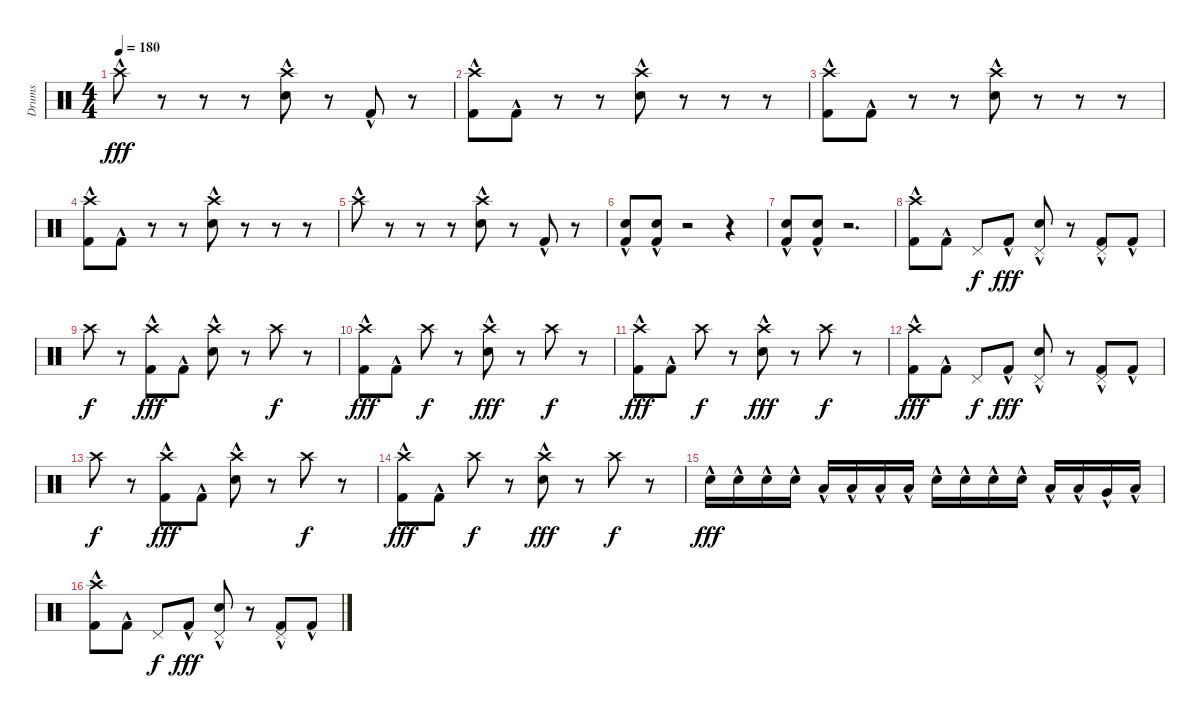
\track ("Drums" "Drums") {instrument percussion}
\staff {score}
\articulation defaults
\ts (4 4)
\tempo 180
\clef neutral
\ks c "Crash high (hit)"{hac}.8{dy fff}
r.8 r.8 r.8 ("Crash high (hit)"{hac} "Snare (hit) 2"{hac}).8 r.8 "Kick (hit) 2"{hac}.8 r.8 |
("Crash high (hit)"{hac} "Kick (hit) 2"{hac}).8 "Kick (hit) 2"{hac}.8 r.8 r.8 ("Crash high (hit)"{hac} "Snare (hit) 2"{hac}).8 r.8 r.8 r.8 |
("Crash high (hit)"{hac} "Kick (hit) 2"{hac}).8 "Kick (hit) 2"{hac}.8 r.8 r.8 ("Crash high (hit)"{hac} "Snare (hit) 2"{hac}).8 r.8 r.8 r.8 |
("Crash high (hit)"{hac} "Kick (hit) 2"{hac}).8 "Kick (hit) 2"{hac}.8 r.8 r.8 ("Crash high (hit)"{hac} "Snare (hit) 2"{hac}).8 r.8 r.8 r.8 |
"Crash high (hit)"{hac}.8 r.8 r.8 r.8 ("Crash high (hit)"{hac} "Snare (hit) 2"{hac}).8 r.8 "Kick (hit) 2"{hac}.8 r.8 |
("Snare (hit) 2"{hac} "Kick (hit) 2"{hac}).8 ("Snare (hit) 2"{hac} "Kick (hit) 2"{hac}).8 r.2 r.4 |
("Snare (hit) 2"{hac} "Kick (hit) 2"{hac}).8 ("Snare (hit) 2"{hac} "Kick (hit) 2"{hac}).8 r.2{d} |
("Crash high (hit)"{hac} "Kick (hit) 2"{hac}).8 "Kick (hit) 2"{hac}.8 "Pedal Hi-Hat (hit)".8{dy f} "Kick (hit) 2"{hac}.8{dy fff} ("Pedal Hi-Hat (hit)" "Snare (hit) 2"{hac}).8 r.8 ("Pedal Hi-Hat (hit)" "Kick (hit) 2"{hac}).8 "Kick (hit) 2"{hac}.8 |
"Crash high (hit)".8{dy f} r.8 ("Crash high (hit)" "Kick (hit) 2"{hac}).8{dy fff} "Kick (hit) 2"{hac}.8 ("Crash high (hit)" "Snare (hit) 2"{hac}).8 r.8 "Crash high (hit)".8{dy f} r.8 |
("Crash high (hit)" "Kick (hit) 2"{hac}).8{dy fff} "Kick (hit) 2"{hac}.8 "Crash high (hit)".8{dy f} r.8 ("Crash high (hit)" "Snare (hit) 2"{hac}).8{dy fff} r.8 "Crash high (hit)".8{dy f} r.8 |
("Crash high (hit)" "Kick (hit) 2"{hac}).8{dy fff} "Kick (hit) 2"{hac}.8 "Crash high (hit)".8{dy f} r.8 ("Crash high (hit)" "Snare (hit) 2"{hac}).8{dy fff} r.8 "Crash high (hit)".8{dy f} r.8 |
("Crash high (hit)"{hac} "Kick (hit) 2"{hac}).8{dy fff} "Kick (hit) 2"{hac}.8 "Pedal Hi-Hat (hit)".8{dy f} "Kick (hit) 2"{hac}.8{dy fff} ("Pedal Hi-Hat (hit)" "Snare (hit) 2"{hac}).8 r.8 ("Pedal Hi-Hat (hit)" "Kick (hit) 2"{hac}).8 "Kick (hit) 2"{hac}.8 |
"Crash high (hit)".8{dy f} r.8 ("Crash high (hit)" "Kick (hit) 2"{hac}).8{dy fff} "Kick (hit) 2"{hac}.8 ("Crash high (hit)" "Snare (hit) 2"{hac}).8 r.8 "Crash high (hit)".8{dy f} r.8 |
("Crash high (hit)" "Kick (hit) 2"{hac}).8{dy fff} "Kick (hit) 2"{hac}.8 "Crash high (hit)".8{dy f} r.8 ("Crash high (hit)" "Snare (hit) 2"{hac}).8{dy fff} r.8 "Crash high (hit)".8{dy f} r.8 |
"Snare (hit) 2"{hac}.16{dy fff} "Snare (hit) 2"{hac}.16 "Snare (hit) 2"{hac}.16 "Snare (hit) 2"{hac}.16 "Low Tom (hit)"{hac}.16 "Low Tom (hit)"{hac}.16 "Low Tom (hit)"{hac}.16 "Low Tom (hit)"{hac}.16 "Snare (hit) 2"{hac}.16 "Snare (hit) 2"{hac}.16 "Snare (hit) 2"{hac}.16 "Snare (hit) 2"{hac}.16 "Low Tom (hit)"{hac}.16 "Low Tom (hit)"{hac}.16 "Very Low Tom (hit)"{hac}.16 "Low Floor Tom (hit)"{hac}.16 |
("Crash high (hit)"{hac} "Kick (hit) 2"{hac}).8 "Kick (hit) 2"{hac}.8 "Pedal Hi-Hat (hit)".8{dy f} "Kick (hit) 2"{hac}.8{dy fff} ("Pedal Hi-Hat (hit)" "Snare (hit) 2"{hac}).8 r.8 ("Pedal Hi-Hat (hit)" "Kick (hit) 2"{hac}).8 "Kick (hit) 2"{hac}.8
